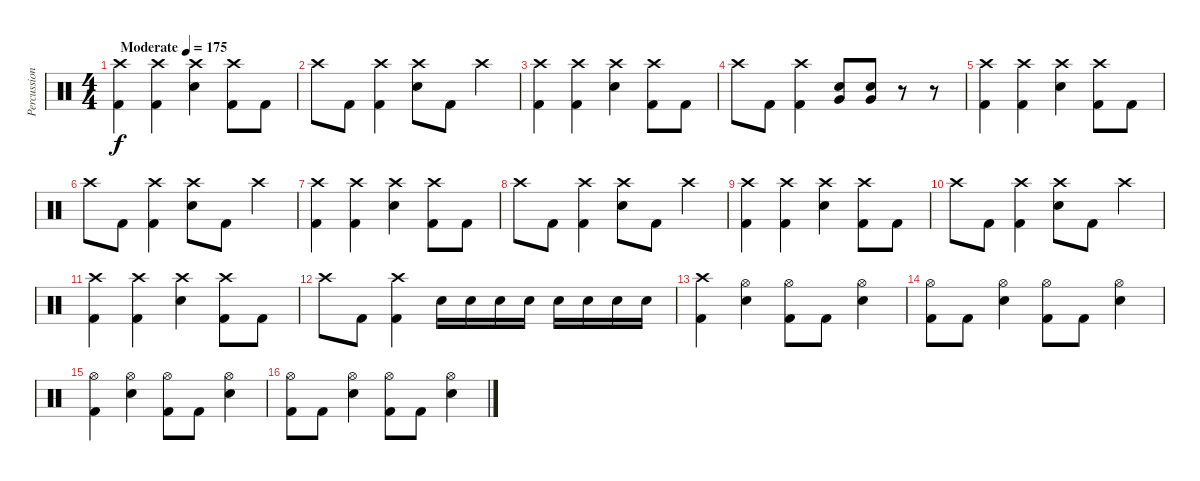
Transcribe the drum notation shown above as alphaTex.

\track ("Percussion" "Percussion") {instrument percussion}
\staff {score}
\articulation defaults
\ts (4 4)
\tempo (175 "Moderate")
\clef neutral
\ks c
("Crash high (hit)" "Kick (hit) 2").4{dy f} ("Crash high (hit)" "Kick (hit) 2").4 ("Crash high (hit)" "Snare (hit) 2").4 ("Crash high (hit)" "Kick (hit) 2").8 "Kick (hit) 2".8 |
"Crash high (hit)".8 "Kick (hit) 2".8 ("Crash high (hit)" "Kick (hit) 2").4 ("Crash high (hit)" "Snare (hit) 2").8 "Kick (hit) 2".8 "Crash high (hit)".4 |
("Crash high (hit)" "Kick (hit) 2").4 ("Crash high (hit)" "Kick (hit) 2").4 ("Crash high (hit)" "Snare (hit) 2").4 ("Crash high (hit)" "Kick (hit) 2").8 "Kick (hit) 2".8 |
"Crash high (hit)".8 "Kick (hit) 2".8 ("Crash high (hit)" "Kick (hit) 2").4 ("Very Low Tom (hit)" "Snare (hit) 2").8 ("Very Low Tom (hit)" "Snare (hit) 2").8 r.8 r.8 |
("Crash high (hit)" "Kick (hit) 2").4 ("Crash high (hit)" "Kick (hit) 2").4 ("Crash high (hit)" "Snare (hit) 2").4 ("Crash high (hit)" "Kick (hit) 2").8 "Kick (hit) 2".8 |
"Crash high (hit)".8 "Kick (hit) 2".8 ("Crash high (hit)" "Kick (hit) 2").4 ("Crash high (hit)" "Snare (hit) 2").8 "Kick (hit) 2".8 "Crash high (hit)".4 |
("Crash high (hit)" "Kick (hit) 2").4 ("Crash high (hit)" "Kick (hit) 2").4 ("Crash high (hit)" "Snare (hit) 2").4 ("Crash high (hit)" "Kick (hit) 2").8 "Kick (hit) 2".8 |
"Crash high (hit)".8 "Kick (hit) 2".8 ("Crash high (hit)" "Kick (hit) 2").4 ("Crash high (hit)" "Snare (hit) 2").8 "Kick (hit) 2".8 "Crash high (hit)".4 |
("Crash high (hit)" "Kick (hit) 2").4 ("Crash high (hit)" "Kick (hit) 2").4 ("Crash high (hit)" "Snare (hit) 2").4 ("Crash high (hit)" "Kick (hit) 2").8 "Kick (hit) 2".8 |
"Crash high (hit)".8 "Kick (hit) 2".8 ("Crash high (hit)" "Kick (hit) 2").4 ("Crash high (hit)" "Snare (hit) 2").8 "Kick (hit) 2".8 "Crash high (hit)".4 |
("Crash high (hit)" "Kick (hit) 2").4 ("Crash high (hit)" "Kick (hit) 2").4 ("Crash high (hit)" "Snare (hit) 2").4 ("Crash high (hit)" "Kick (hit) 2").8 "Kick (hit) 2".8 |
"Crash high (hit)".8 "Kick (hit) 2".8 ("Crash high (hit)" "Kick (hit) 2").4 "Snare (hit) 2".16 "Snare (hit) 2".16 "Snare (hit) 2".16 "Snare (hit) 2".16 "Snare (hit) 2".16 "Snare (hit) 2".16 "Snare (hit) 2".16 "Snare (hit) 2".16 |
("Crash high (hit)" "Kick (hit) 2").4 ("Hi-Hat (open)" "Electric Snare (hit)").4 ("Hi-Hat (open)" "Kick (hit) 2").8 "Kick (hit) 2".8 ("Hi-Hat (open)" "Electric Snare (hit)").4 |
("Hi-Hat (open)" "Kick (hit) 2").8 "Kick (hit) 2".8 ("Hi-Hat (open)" "Electric Snare (hit)").4 ("Hi-Hat (open)" "Kick (hit) 2").8 "Kick (hit) 2".8 ("Hi-Hat (open)" "Electric Snare (hit)").4 |
("Hi-Hat (open)" "Kick (hit) 2").4 ("Hi-Hat (open)" "Electric Snare (hit)").4 ("Hi-Hat (open)" "Kick (hit) 2").8 "Kick (hit) 2".8 ("Hi-Hat (open)" "Electric Snare (hit)").4 |
("Hi-Hat (open)" "Kick (hit) 2").8 "Kick (hit) 2".8 ("Hi-Hat (open)" "Electric Snare (hit)").4 ("Hi-Hat (open)" "Kick (hit) 2").8 "Kick (hit) 2".8 ("Hi-Hat (open)" "Electric Snare (hit)").4
